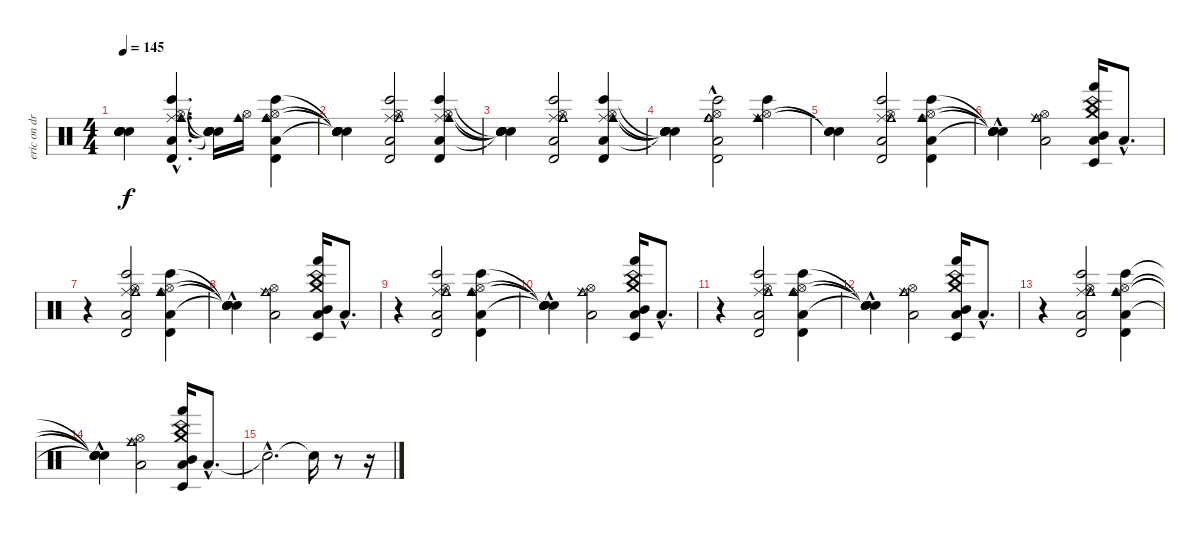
\track ("eric on drums" "eric on dr") {instrument percussion}
\staff {score}
\articulation defaults
\ts (4 4)
\tempo 145
\clef neutral
\ks c
("Snare (hit)"{t} "Snare (hit)"{t} "Snare (hit)"{t} "Snare (hit)"{t} "Snare (hit)"{t}).4{dy f} ("Low Floor Tom (hit)" "Hi-Hat (open)"{hac} "Ride (middle)"{hac} "Cowbell medium (hit)"{hac} "Bongo High (hit)"{hac} "Timbale high (hit)"{hac}).4{d} ("Snare (hit)"{t} "Snare (hit)"{t} "Snare (hit)"{t} "Snare (hit)"{t} "Snare (hit)"{t}).16 ("Hi-Hat (open)" "Cowbell medium (hit)").16 ("Low Floor Tom (hit)" "Hi-Hat (open)" "Ride (bell)" "Cowbell medium (hit)" "Bongo High (hit)" "Timbale high (hit)").4 |
("Snare (hit)"{t} "Snare (hit)"{t} "Snare (hit)"{t} "Snare (hit)"{t} "Snare (hit)"{t}).4 ("Low Floor Tom (hit)" "Hi-Hat (open)" "Ride (middle)" "Cowbell medium (hit)" "Bongo High (hit)" "Timbale high (hit)").2 ("Low Floor Tom (hit)" "Hi-Hat (open)" "Ride (middle)" "Cowbell medium (hit)" "Bongo High (hit)" "Timbale high (hit)").4 |
("Snare (hit)"{t} "Snare (hit)"{t} "Snare (hit)"{t} "Snare (hit)"{t} "Snare (hit)"{t}).4 ("Low Floor Tom (hit)" "Hi-Hat (open)" "Ride (middle)" "Cowbell medium (hit)" "Bongo High (hit)" "Timbale high (hit)").2 ("Low Floor Tom (hit)" "Hi-Hat (open)" "Ride (middle)" "Cowbell medium (hit)" "Bongo High (hit)" "Timbale high (hit)").4 |
("Snare (hit)"{t} "Snare (hit)"{t} "Snare (hit)"{t} "Snare (hit)"{t} "Snare (hit)"{t}).4 ("Low Floor Tom (hit)" "Hi-Hat (open)" "Ride (bell)" "Cowbell medium (hit)"{hac} "Bongo High (hit)"{hac} "Timbale high (hit)").2 ("Hi-Hat (open)" "Ride (middle)" "Cowbell medium (hit)" "Bongo High (hit)").4 |
("Snare (hit)"{t} "Snare (hit)"{t} "Snare (hit)"{t}).4 ("Low Floor Tom (hit)" "Hi-Hat (open)" "Ride (middle)" "Cowbell medium (hit)" "Bongo High (hit)" "Timbale high (hit)").2 ("Low Floor Tom (hit)" "Hi-Hat (open)" "Ride (bell)" "Cowbell medium (hit)" "Bongo High (hit)" "Timbale high (hit)").4 |
("Snare (hit)"{t} "Snare (hit)"{t} "Snare (hit)"{t} "Snare (hit)"{hac t} "Snare (hit)"{hac t}).4 ("Low Floor Tom (hit)" "Hi-Hat (open)" "Ride (middle)" "Cowbell medium (hit)").2 ("Low Floor Tom (hit)" "Mid Tom (hit)" "China (hit)" "Crash medium (hit)" "Hand (hit)" "Timbale low (hit)").16 "Low Floor Tom (hit)"{hac}.8{d} |
r.4 ("Low Floor Tom (hit)" "Hi-Hat (open)" "Ride (middle)" "Cowbell medium (hit)" "Bongo High (hit)" "Timbale high (hit)").2 ("Low Floor Tom (hit)" "Hi-Hat (open)" "Ride (bell)" "Cowbell medium (hit)" "Bongo High (hit)" "Timbale high (hit)").4 |
("Snare (hit)"{t} "Snare (hit)"{t} "Snare (hit)"{t} "Snare (hit)"{hac t} "Snare (hit)"{hac t}).4 ("Low Floor Tom (hit)" "Hi-Hat (open)" "Ride (middle)" "Cowbell medium (hit)").2 ("Low Floor Tom (hit)" "Mid Tom (hit)" "China (hit)" "Crash medium (hit)" "Hand (hit)" "Timbale low (hit)").16 "Low Floor Tom (hit)"{hac}.8{d} |
r.4 ("Low Floor Tom (hit)" "Hi-Hat (open)" "Ride (middle)" "Cowbell medium (hit)" "Bongo High (hit)" "Timbale high (hit)").2 ("Low Floor Tom (hit)" "Hi-Hat (open)" "Ride (bell)" "Cowbell medium (hit)" "Bongo High (hit)" "Timbale high (hit)").4 |
("Snare (hit)"{t} "Snare (hit)"{t} "Snare (hit)"{t} "Snare (hit)"{hac t} "Snare (hit)"{hac t}).4 ("Low Floor Tom (hit)" "Hi-Hat (open)" "Ride (middle)" "Cowbell medium (hit)").2 ("Low Floor Tom (hit)" "Mid Tom (hit)" "China (hit)" "Crash medium (hit)" "Hand (hit)" "Timbale low (hit)").16 "Low Floor Tom (hit)"{hac}.8{d} |
r.4 ("Low Floor Tom (hit)" "Hi-Hat (open)" "Ride (middle)" "Cowbell medium (hit)" "Bongo High (hit)" "Timbale high (hit)").2 ("Low Floor Tom (hit)" "Hi-Hat (open)" "Ride (bell)" "Cowbell medium (hit)" "Bongo High (hit)" "Timbale high (hit)").4 |
("Snare (hit)"{t} "Snare (hit)"{t} "Snare (hit)"{t} "Snare (hit)"{hac t} "Snare (hit)"{hac t}).4 ("Low Floor Tom (hit)" "Hi-Hat (open)" "Ride (middle)" "Cowbell medium (hit)").2 ("Low Floor Tom (hit)" "Mid Tom (hit)" "China (hit)" "Crash medium (hit)" "Hand (hit)" "Timbale low (hit)").16 "Low Floor Tom (hit)"{hac}.8{d} |
r.4 ("Low Floor Tom (hit)" "Hi-Hat (open)" "Ride (middle)" "Cowbell medium (hit)" "Bongo High (hit)" "Timbale high (hit)").2 ("Low Floor Tom (hit)" "Hi-Hat (open)" "Ride (bell)" "Cowbell medium (hit)" "Bongo High (hit)" "Timbale high (hit)").4 |
("Snare (hit)"{t} "Snare (hit)"{t} "Snare (hit)"{t} "Snare (hit)"{hac t} "Snare (hit)"{hac t}).4 ("Low Floor Tom (hit)" "Hi-Hat (open)" "Ride (middle)" "Cowbell medium (hit)").2 ("Low Floor Tom (hit)" "Mid Tom (hit)" "China (hit)" "Crash medium (hit)" "Hand (hit)" "Timbale low (hit)").16 "Low Floor Tom (hit)"{hac}.8{d} |
"Snare (hit)"{hac t}.2{d} "Snare (hit)"{t}.16 r.8 r.16
